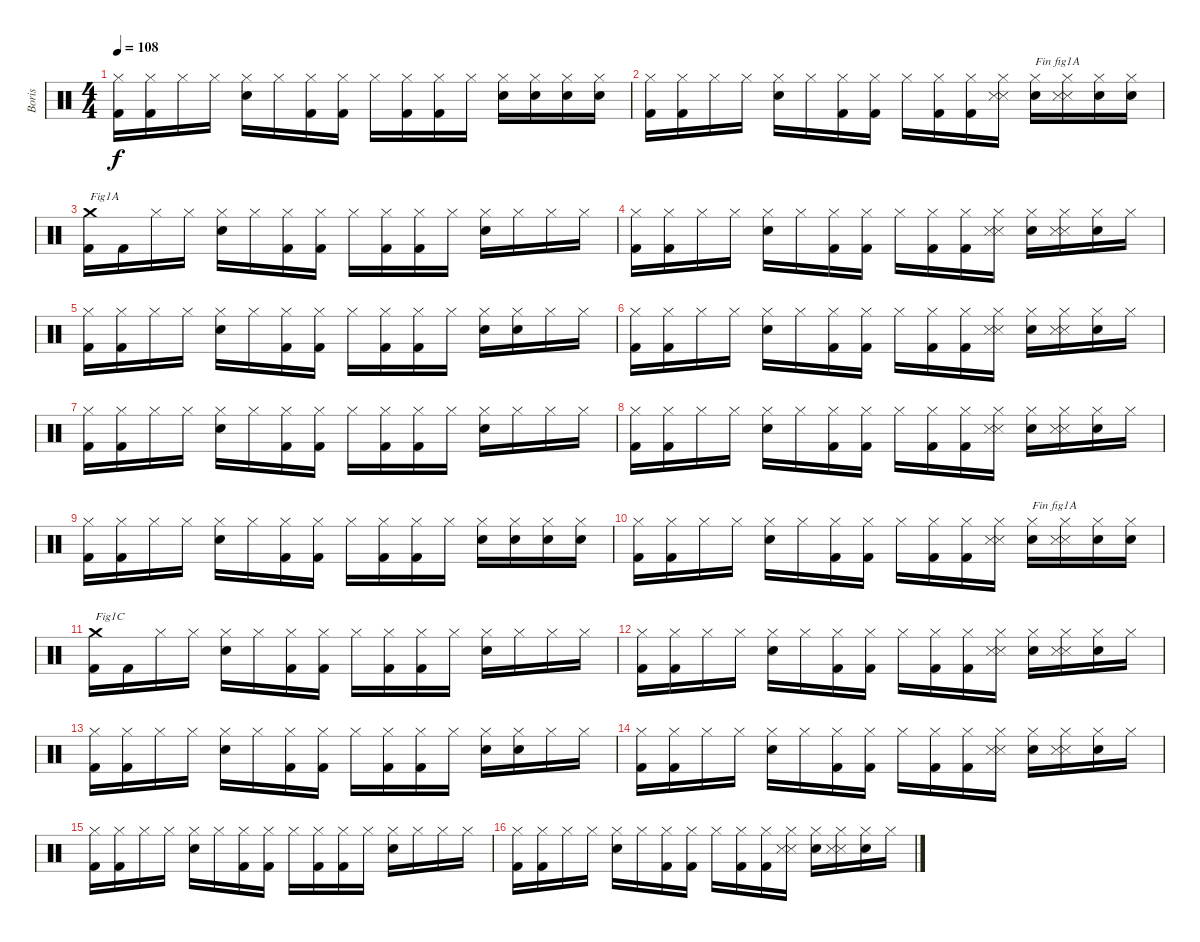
\track ("Boris" "Boris") {instrument percussion}
\staff {score}
\articulation defaults
\ts (4 4)
\tempo 108
\clef neutral
\ks c
("Kick (hit) 2" "Hi-Hat (closed)").16{dy f} ("Kick (hit) 2" "Hi-Hat (closed)").16 "Hi-Hat (closed)".16 "Hi-Hat (closed)".16 ("Electric Snare (hit)" "Hi-Hat (closed)").16 "Hi-Hat (closed)".16 ("Kick (hit) 2" "Hi-Hat (closed)").16 ("Kick (hit) 2" "Hi-Hat (closed)").16 "Hi-Hat (closed)".16 ("Kick (hit) 2" "Hi-Hat (closed)").16 ("Kick (hit) 2" "Hi-Hat (closed)").16 "Hi-Hat (closed)".16 ("Electric Snare (hit)" "Hi-Hat (closed)").16 ("Electric Snare (hit)" "Hi-Hat (closed)").16 ("Electric Snare (hit)" "Hi-Hat (closed)").16 ("Electric Snare (hit)" "Hi-Hat (closed)").16 |
("Kick (hit) 2" "Hi-Hat (closed)").16 ("Kick (hit) 2" "Hi-Hat (closed)").16 "Hi-Hat (closed)".16 "Hi-Hat (closed)".16 ("Electric Snare (hit)" "Hi-Hat (closed)").16 "Hi-Hat (closed)".16 ("Kick (hit) 2" "Hi-Hat (closed)").16 ("Kick (hit) 2" "Hi-Hat (closed)").16 "Hi-Hat (closed)".16 ("Kick (hit) 2" "Hi-Hat (closed)").16 ("Kick (hit) 2" "Hi-Hat (closed)").16 ("Metronome (hit)" "Snare (side stick) 3" "Hi-Hat (closed)").16 ("Electric Snare (hit)" "Hi-Hat (closed)").16{txt "Fin fig1A"} ("Metronome (hit)" "Snare (side stick) 3" "Hi-Hat (closed)").16 ("Electric Snare (hit)" "Hi-Hat (closed)").16 ("Electric Snare (hit)" "Hi-Hat (closed)").16 |
("Kick (hit) 2" "Crash medium (hit)").16{txt "Fig1A"} "Kick (hit) 2".16 "Hi-Hat (closed)".16 "Hi-Hat (closed)".16 ("Electric Snare (hit)" "Hi-Hat (closed)").16 "Hi-Hat (closed)".16 ("Kick (hit) 2" "Hi-Hat (closed)").16 ("Kick (hit) 2" "Hi-Hat (closed)").16 "Hi-Hat (closed)".16 ("Kick (hit) 2" "Hi-Hat (closed)").16 ("Kick (hit) 2" "Hi-Hat (closed)").16 "Hi-Hat (closed)".16 ("Electric Snare (hit)" "Hi-Hat (closed)").16 "Hi-Hat (closed)".16 "Hi-Hat (closed)".16 "Hi-Hat (closed)".16 |
("Kick (hit) 2" "Hi-Hat (closed)").16 ("Kick (hit) 2" "Hi-Hat (closed)").16 "Hi-Hat (closed)".16 "Hi-Hat (closed)".16 ("Electric Snare (hit)" "Hi-Hat (closed)").16 "Hi-Hat (closed)".16 ("Kick (hit) 2" "Hi-Hat (closed)").16 ("Kick (hit) 2" "Hi-Hat (closed)").16 "Hi-Hat (closed)".16 ("Kick (hit) 2" "Hi-Hat (closed)").16 ("Kick (hit) 2" "Hi-Hat (closed)").16 ("Metronome (hit)" "Snare (side stick) 3" "Hi-Hat (closed)").16 ("Electric Snare (hit)" "Hi-Hat (closed)").16 ("Metronome (hit)" "Snare (side stick) 3" "Hi-Hat (closed)").16 ("Electric Snare (hit)" "Hi-Hat (closed)").16 "Hi-Hat (closed)".16 |
("Kick (hit) 2" "Hi-Hat (closed)").16 ("Kick (hit) 2" "Hi-Hat (closed)").16 "Hi-Hat (closed)".16 "Hi-Hat (closed)".16 ("Electric Snare (hit)" "Hi-Hat (closed)").16 "Hi-Hat (closed)".16 ("Kick (hit) 2" "Hi-Hat (closed)").16 ("Kick (hit) 2" "Hi-Hat (closed)").16 "Hi-Hat (closed)".16 ("Kick (hit) 2" "Hi-Hat (closed)").16 ("Kick (hit) 2" "Hi-Hat (closed)").16 "Hi-Hat (closed)".16 ("Electric Snare (hit)" "Hi-Hat (closed)").16 ("Electric Snare (hit)" "Hi-Hat (closed)").16 "Hi-Hat (closed)".16 "Hi-Hat (closed)".16 |
("Kick (hit) 2" "Hi-Hat (closed)").16 ("Kick (hit) 2" "Hi-Hat (closed)").16 "Hi-Hat (closed)".16 "Hi-Hat (closed)".16 ("Electric Snare (hit)" "Hi-Hat (closed)").16 "Hi-Hat (closed)".16 ("Kick (hit) 2" "Hi-Hat (closed)").16 ("Kick (hit) 2" "Hi-Hat (closed)").16 "Hi-Hat (closed)".16 ("Kick (hit) 2" "Hi-Hat (closed)").16 ("Kick (hit) 2" "Hi-Hat (closed)").16 ("Metronome (hit)" "Snare (side stick) 3" "Hi-Hat (closed)").16 ("Electric Snare (hit)" "Hi-Hat (closed)").16 ("Metronome (hit)" "Snare (side stick) 3" "Hi-Hat (closed)").16 ("Electric Snare (hit)" "Hi-Hat (closed)").16 "Hi-Hat (closed)".16 |
("Kick (hit) 2" "Hi-Hat (closed)").16 ("Kick (hit) 2" "Hi-Hat (closed)").16 "Hi-Hat (closed)".16 "Hi-Hat (closed)".16 ("Electric Snare (hit)" "Hi-Hat (closed)").16 "Hi-Hat (closed)".16 ("Kick (hit) 2" "Hi-Hat (closed)").16 ("Kick (hit) 2" "Hi-Hat (closed)").16 "Hi-Hat (closed)".16 ("Kick (hit) 2" "Hi-Hat (closed)").16 ("Kick (hit) 2" "Hi-Hat (closed)").16 "Hi-Hat (closed)".16 ("Electric Snare (hit)" "Hi-Hat (closed)").16 "Hi-Hat (closed)".16 "Hi-Hat (closed)".16 "Hi-Hat (closed)".16 |
("Kick (hit) 2" "Hi-Hat (closed)").16 ("Kick (hit) 2" "Hi-Hat (closed)").16 "Hi-Hat (closed)".16 "Hi-Hat (closed)".16 ("Electric Snare (hit)" "Hi-Hat (closed)").16 "Hi-Hat (closed)".16 ("Kick (hit) 2" "Hi-Hat (closed)").16 ("Kick (hit) 2" "Hi-Hat (closed)").16 "Hi-Hat (closed)".16 ("Kick (hit) 2" "Hi-Hat (closed)").16 ("Kick (hit) 2" "Hi-Hat (closed)").16 ("Metronome (hit)" "Snare (side stick) 3" "Hi-Hat (closed)").16 ("Electric Snare (hit)" "Hi-Hat (closed)").16 ("Metronome (hit)" "Snare (side stick) 3" "Hi-Hat (closed)").16 ("Electric Snare (hit)" "Hi-Hat (closed)").16 "Hi-Hat (closed)".16 |
("Kick (hit) 2" "Hi-Hat (closed)").16 ("Kick (hit) 2" "Hi-Hat (closed)").16 "Hi-Hat (closed)".16 "Hi-Hat (closed)".16 ("Electric Snare (hit)" "Hi-Hat (closed)").16 "Hi-Hat (closed)".16 ("Kick (hit) 2" "Hi-Hat (closed)").16 ("Kick (hit) 2" "Hi-Hat (closed)").16 "Hi-Hat (closed)".16 ("Kick (hit) 2" "Hi-Hat (closed)").16 ("Kick (hit) 2" "Hi-Hat (closed)").16 "Hi-Hat (closed)".16 ("Electric Snare (hit)" "Hi-Hat (closed)").16 ("Electric Snare (hit)" "Hi-Hat (closed)").16 ("Electric Snare (hit)" "Hi-Hat (closed)").16 ("Electric Snare (hit)" "Hi-Hat (closed)").16 |
("Kick (hit) 2" "Hi-Hat (closed)").16 ("Kick (hit) 2" "Hi-Hat (closed)").16 "Hi-Hat (closed)".16 "Hi-Hat (closed)".16 ("Electric Snare (hit)" "Hi-Hat (closed)").16 "Hi-Hat (closed)".16 ("Kick (hit) 2" "Hi-Hat (closed)").16 ("Kick (hit) 2" "Hi-Hat (closed)").16 "Hi-Hat (closed)".16 ("Kick (hit) 2" "Hi-Hat (closed)").16 ("Kick (hit) 2" "Hi-Hat (closed)").16 ("Metronome (hit)" "Snare (side stick) 3" "Hi-Hat (closed)").16 ("Electric Snare (hit)" "Hi-Hat (closed)").16{txt "Fin fig1A"} ("Metronome (hit)" "Snare (side stick) 3" "Hi-Hat (closed)").16 ("Electric Snare (hit)" "Hi-Hat (closed)").16 ("Electric Snare (hit)" "Hi-Hat (closed)").16 |
("Kick (hit) 2" "Crash medium (hit)").16{txt "Fig1C"} "Kick (hit) 2".16 "Hi-Hat (closed)".16 "Hi-Hat (closed)".16 ("Electric Snare (hit)" "Hi-Hat (closed)").16 "Hi-Hat (closed)".16 ("Kick (hit) 2" "Hi-Hat (closed)").16 ("Kick (hit) 2" "Hi-Hat (closed)").16 "Hi-Hat (closed)".16 ("Kick (hit) 2" "Hi-Hat (closed)").16 ("Kick (hit) 2" "Hi-Hat (closed)").16 "Hi-Hat (closed)".16 ("Electric Snare (hit)" "Hi-Hat (closed)").16 "Hi-Hat (closed)".16 "Hi-Hat (closed)".16 "Hi-Hat (closed)".16 |
("Kick (hit) 2" "Hi-Hat (closed)").16 ("Kick (hit) 2" "Hi-Hat (closed)").16 "Hi-Hat (closed)".16 "Hi-Hat (closed)".16 ("Electric Snare (hit)" "Hi-Hat (closed)").16 "Hi-Hat (closed)".16 ("Kick (hit) 2" "Hi-Hat (closed)").16 ("Kick (hit) 2" "Hi-Hat (closed)").16 "Hi-Hat (closed)".16 ("Kick (hit) 2" "Hi-Hat (closed)").16 ("Kick (hit) 2" "Hi-Hat (closed)").16 ("Metronome (hit)" "Snare (side stick) 3" "Hi-Hat (closed)").16 ("Electric Snare (hit)" "Hi-Hat (closed)").16 ("Metronome (hit)" "Snare (side stick) 3" "Hi-Hat (closed)").16 ("Electric Snare (hit)" "Hi-Hat (closed)").16 "Hi-Hat (closed)".16 |
("Kick (hit) 2" "Hi-Hat (closed)").16 ("Kick (hit) 2" "Hi-Hat (closed)").16 "Hi-Hat (closed)".16 "Hi-Hat (closed)".16 ("Electric Snare (hit)" "Hi-Hat (closed)").16 "Hi-Hat (closed)".16 ("Kick (hit) 2" "Hi-Hat (closed)").16 ("Kick (hit) 2" "Hi-Hat (closed)").16 "Hi-Hat (closed)".16 ("Kick (hit) 2" "Hi-Hat (closed)").16 ("Kick (hit) 2" "Hi-Hat (closed)").16 "Hi-Hat (closed)".16 ("Electric Snare (hit)" "Hi-Hat (closed)").16 ("Electric Snare (hit)" "Hi-Hat (closed)").16 "Hi-Hat (closed)".16 "Hi-Hat (closed)".16 |
("Kick (hit) 2" "Hi-Hat (closed)").16 ("Kick (hit) 2" "Hi-Hat (closed)").16 "Hi-Hat (closed)".16 "Hi-Hat (closed)".16 ("Electric Snare (hit)" "Hi-Hat (closed)").16 "Hi-Hat (closed)".16 ("Kick (hit) 2" "Hi-Hat (closed)").16 ("Kick (hit) 2" "Hi-Hat (closed)").16 "Hi-Hat (closed)".16 ("Kick (hit) 2" "Hi-Hat (closed)").16 ("Kick (hit) 2" "Hi-Hat (closed)").16 ("Metronome (hit)" "Snare (side stick) 3" "Hi-Hat (closed)").16 ("Electric Snare (hit)" "Hi-Hat (closed)").16 ("Metronome (hit)" "Snare (side stick) 3" "Hi-Hat (closed)").16 ("Electric Snare (hit)" "Hi-Hat (closed)").16 "Hi-Hat (closed)".16 |
("Kick (hit) 2" "Hi-Hat (closed)").16 ("Kick (hit) 2" "Hi-Hat (closed)").16 "Hi-Hat (closed)".16 "Hi-Hat (closed)".16 ("Electric Snare (hit)" "Hi-Hat (closed)").16 "Hi-Hat (closed)".16 ("Kick (hit) 2" "Hi-Hat (closed)").16 ("Kick (hit) 2" "Hi-Hat (closed)").16 "Hi-Hat (closed)".16 ("Kick (hit) 2" "Hi-Hat (closed)").16 ("Kick (hit) 2" "Hi-Hat (closed)").16 "Hi-Hat (closed)".16 ("Electric Snare (hit)" "Hi-Hat (closed)").16 "Hi-Hat (closed)".16 "Hi-Hat (closed)".16 "Hi-Hat (closed)".16 |
("Kick (hit) 2" "Hi-Hat (closed)").16 ("Kick (hit) 2" "Hi-Hat (closed)").16 "Hi-Hat (closed)".16 "Hi-Hat (closed)".16 ("Electric Snare (hit)" "Hi-Hat (closed)").16 "Hi-Hat (closed)".16 ("Kick (hit) 2" "Hi-Hat (closed)").16 ("Kick (hit) 2" "Hi-Hat (closed)").16 "Hi-Hat (closed)".16 ("Kick (hit) 2" "Hi-Hat (closed)").16 ("Kick (hit) 2" "Hi-Hat (closed)").16 ("Metronome (hit)" "Snare (side stick) 3" "Hi-Hat (closed)").16 ("Electric Snare (hit)" "Hi-Hat (closed)").16 ("Metronome (hit)" "Snare (side stick) 3" "Hi-Hat (closed)").16 ("Electric Snare (hit)" "Hi-Hat (closed)").16 "Hi-Hat (closed)".16
